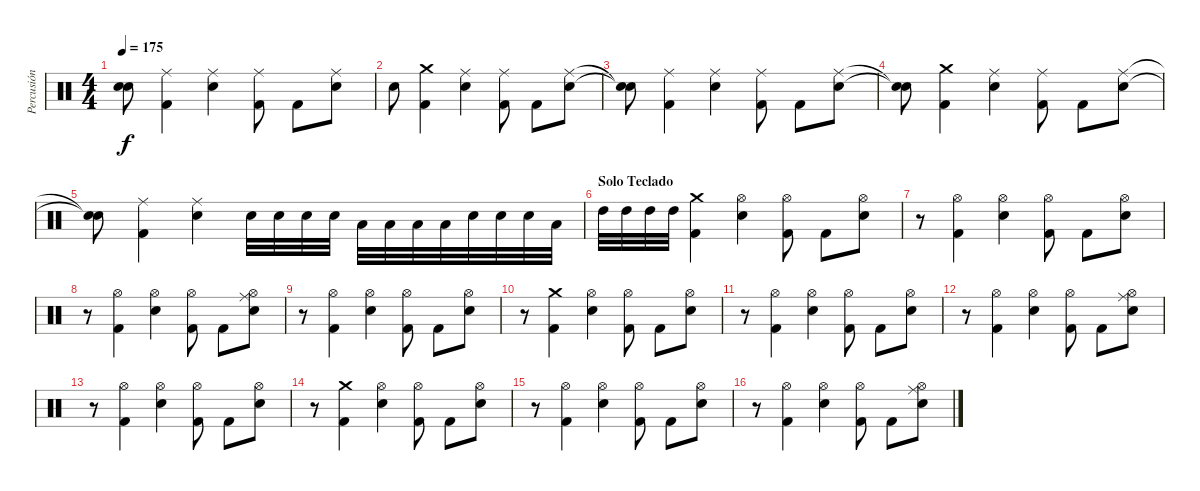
\track ("Percusión" "Percusión") {instrument percussion}
\staff {score}
\articulation defaults
\ts (4 4)
\tempo 175
\clef neutral
\ks c
("Snare (hit)"{t} "Snare (hit) 2"{t}).8{dy f} ("Ride (middle)" "Kick (hit) 2").4 ("Snare (hit) 2" "Ride (middle)").4 ("Ride (middle)" "Kick (hit) 2").8 "Kick (hit) 2".8 ("Ride (middle)" "Snare (hit) 2").8 |
"Snare (hit) 2".8 ("Crash medium (hit)" "Kick (hit) 2").4 ("Snare (hit) 2" "Ride (middle)").4 ("Ride (middle)" "Kick (hit) 2").8 "Kick (hit) 2".8 ("Ride (middle)" "Snare (hit) 2").8 |
("Snare (hit)"{t} "Snare (hit) 2"{t}).8 ("Ride (middle)" "Kick (hit) 2").4 ("Snare (hit) 2" "Ride (middle)").4 ("Ride (middle)" "Kick (hit) 2").8 "Kick (hit) 2".8 ("Ride (middle)" "Snare (hit) 2").8 |
("Snare (hit)"{t} "Snare (hit) 2"{t}).8 ("Crash medium (hit)" "Kick (hit) 2").4 ("Snare (hit) 2" "Ride (middle)").4 ("Ride (middle)" "Kick (hit) 2").8 "Kick (hit) 2".8 ("Ride (middle)" "Snare (hit) 2").8 |
("Snare (hit)"{t} "Snare (hit) 2"{t}).8 ("Ride (middle)" "Kick (hit) 2").4 ("Snare (hit) 2" "Ride (middle)").4 "Snare (hit) 2".32 "Snare (hit) 2".32 "Snare (hit) 2".32 "Snare (hit) 2".32 "Low Tom (hit)".32 "Low Tom (hit)".32 "Low Tom (hit)".32 "Low Tom (hit)".32 "Snare (hit) 2".32 "Snare (hit) 2".32 "Snare (hit) 2".32 "Low Tom (hit)".32 |
\section ("" "Solo Teclado")
"High Tom (hit)".32 "High Tom (hit)".32 "High Tom (hit)".32 "High Tom (hit)".32 ("Kick (hit) 2" "Crash medium (hit)").4 ("Hi-Hat (open)" "Snare (hit) 2").4 ("Kick (hit) 2" "Hi-Hat (open)").8 "Kick (hit) 2".8 ("Hi-Hat (open)" "Snare (hit) 2").8 |
r.8 ("Kick (hit) 2" "Hi-Hat (open)").4 ("Hi-Hat (open)" "Snare (hit) 2").4 ("Kick (hit) 2" "Hi-Hat (open)").8 "Kick (hit) 2".8 ("Hi-Hat (open)" "Snare (hit) 2").8 |
r.8 ("Kick (hit) 2" "Hi-Hat (open)").4 ("Hi-Hat (open)" "Snare (hit) 2").4 ("Kick (hit) 2" "Hi-Hat (open)").8 "Kick (hit) 2".8 ("Ride (middle)" "Hi-Hat (open)" "Snare (hit) 2").8 |
r.8 ("Kick (hit) 2" "Hi-Hat (open)").4 ("Hi-Hat (open)" "Snare (hit) 2").4 ("Kick (hit) 2" "Hi-Hat (open)").8 "Kick (hit) 2".8 ("Hi-Hat (open)" "Snare (hit) 2").8 |
r.8 ("Kick (hit) 2" "Crash medium (hit)").4 ("Hi-Hat (open)" "Snare (hit) 2").4 ("Kick (hit) 2" "Hi-Hat (open)").8 "Kick (hit) 2".8 ("Hi-Hat (open)" "Snare (hit) 2").8 |
r.8 ("Kick (hit) 2" "Hi-Hat (open)").4 ("Hi-Hat (open)" "Snare (hit) 2").4 ("Kick (hit) 2" "Hi-Hat (open)").8 "Kick (hit) 2".8 ("Hi-Hat (open)" "Snare (hit) 2").8 |
r.8 ("Kick (hit) 2" "Hi-Hat (open)").4 ("Hi-Hat (open)" "Snare (hit) 2").4 ("Kick (hit) 2" "Hi-Hat (open)").8 "Kick (hit) 2".8 ("Ride (middle)" "Hi-Hat (open)" "Snare (hit) 2").8 |
r.8 ("Kick (hit) 2" "Hi-Hat (open)").4 ("Hi-Hat (open)" "Snare (hit) 2").4 ("Kick (hit) 2" "Hi-Hat (open)").8 "Kick (hit) 2".8 ("Hi-Hat (open)" "Snare (hit) 2").8 |
r.8 ("Kick (hit) 2" "Crash medium (hit)").4 ("Hi-Hat (open)" "Snare (hit) 2").4 ("Kick (hit) 2" "Hi-Hat (open)").8 "Kick (hit) 2".8 ("Hi-Hat (open)" "Snare (hit) 2").8 |
r.8 ("Kick (hit) 2" "Hi-Hat (open)").4 ("Hi-Hat (open)" "Snare (hit) 2").4 ("Kick (hit) 2" "Hi-Hat (open)").8 "Kick (hit) 2".8 ("Hi-Hat (open)" "Snare (hit) 2").8 |
r.8 ("Kick (hit) 2" "Hi-Hat (open)").4 ("Hi-Hat (open)" "Snare (hit) 2").4 ("Kick (hit) 2" "Hi-Hat (open)").8 "Kick (hit) 2".8 ("Ride (middle)" "Hi-Hat (open)" "Snare (hit) 2").8
